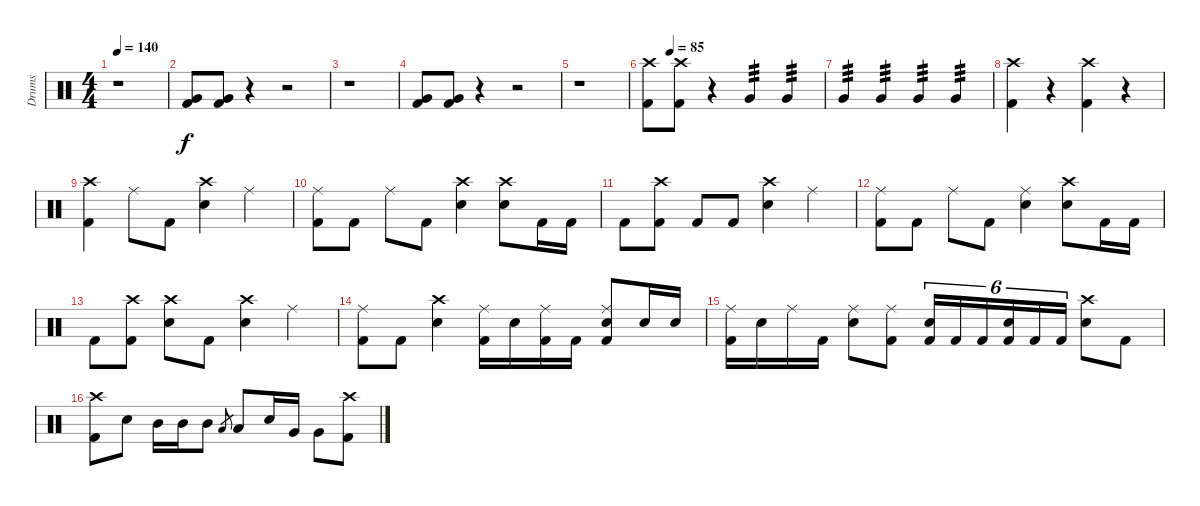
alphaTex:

\track ("Drums" "Drums") {instrument percussion}
\staff {score}
\articulation defaults
\ts (4 4)
\tempo 140
\clef neutral
\ks c
r.1{dy f} |
("Very Low Tom (hit)" "Kick (hit) 2").8 ("Very Low Tom (hit)" "Kick (hit) 2").8 r.4 r.2 |
r.1 |
("Very Low Tom (hit)" "Kick (hit) 2").8 ("Very Low Tom (hit)" "Kick (hit) 2").8 r.4 r.2 |
r.1 |
\tempo (85 0.125)
("Crash high (hit)" "Kick (hit) 2").8 ("Crash high (hit)" "Kick (hit) 2").8 r.4 "Very Low Tom (hit)".4{tp 3} "Very Low Tom (hit)".4{tp 3} |
"Very Low Tom (hit)".4{tp 3} "Very Low Tom (hit)".4{tp 3} "Very Low Tom (hit)".4{tp 3} "Very Low Tom (hit)".4{tp 3} |
("Crash high (hit)" "Kick (hit) 2").4 r.4 ("Crash high (hit)" "Kick (hit) 2").4 r.4 |
("Crash high (hit)" "Kick (hit) 2").4 "Ride (middle)".8 "Kick (hit) 2".8 ("Crash high (hit)" "Electric Snare (hit)").4 "Ride (middle)".4 |
("Ride (middle)" "Kick (hit) 2").8 "Kick (hit) 2".8 "Ride (middle)".8 "Kick (hit) 2".8 ("Crash high (hit)" "Electric Snare (hit)").4 ("Crash high (hit)" "Electric Snare (hit)").8 "Kick (hit) 2".16 "Kick (hit) 2".16 |
"Kick (hit) 2".8 ("Crash high (hit)" "Kick (hit) 2").8 "Kick (hit) 2".8 "Kick (hit) 2".8 ("Crash high (hit)" "Electric Snare (hit)").4 "Ride (middle)".4 |
("Ride (middle)" "Kick (hit) 2").8 "Kick (hit) 2".8 "Ride (middle)".8 "Kick (hit) 2".8 ("Ride (middle)" "Electric Snare (hit)").4 ("Crash high (hit)" "Electric Snare (hit)").8 "Kick (hit) 2".16 "Kick (hit) 2".16 |
"Kick (hit) 2".8 ("Crash high (hit)" "Kick (hit) 2").8 ("Crash high (hit)" "Electric Snare (hit)").8 "Kick (hit) 2".8 ("Crash high (hit)" "Electric Snare (hit)").4 "Ride (middle)".4 |
("Ride (middle)" "Kick (hit) 2").8 "Kick (hit) 2".8 ("Crash high (hit)" "Electric Snare (hit)").4 ("Ride (middle)" "Kick (hit) 2").16 "Electric Snare (hit)".16 ("Ride (middle)" "Kick (hit) 2").16 "Kick (hit) 2".16 ("Ride (middle)" "Electric Snare (hit)" "Kick (hit) 2").8 "Electric Snare (hit)".16 "Electric Snare (hit)".16 |
("Ride (middle)" "Kick (hit) 2").16 "Electric Snare (hit)".16 "Ride (middle)".16 "Kick (hit) 2".16 ("Ride (middle)" "Electric Snare (hit)").8 ("Ride (middle)" "Kick (hit) 2").8 ("Electric Snare (hit)" "Kick (hit) 2").16{tu (6 4)} "Kick (hit) 2".16{tu (6 4)} "Kick (hit) 2".16{tu (6 4)} ("Electric Snare (hit)" "Kick (hit) 2").16{tu (6 4)} "Kick (hit) 2".16{tu (6 4)} "Kick (hit) 2".16{tu (6 4)} ("Crash high (hit)" "Electric Snare (hit)").8 "Kick (hit) 2".8 |
("Crash high (hit)" "Kick (hit) 2").8 "Electric Snare (hit)".8 "Mid Tom (hit)".16 "Mid Tom (hit)".16 "Mid Tom (hit)".8 "Low Tom (hit)".8{gr} "Low Tom (hit)".8 "Electric Snare (hit)".16 "Very Low Tom (hit)".16 "Very Low Tom (hit)".8 ("Crash high (hit)" "Kick (hit) 2").8
